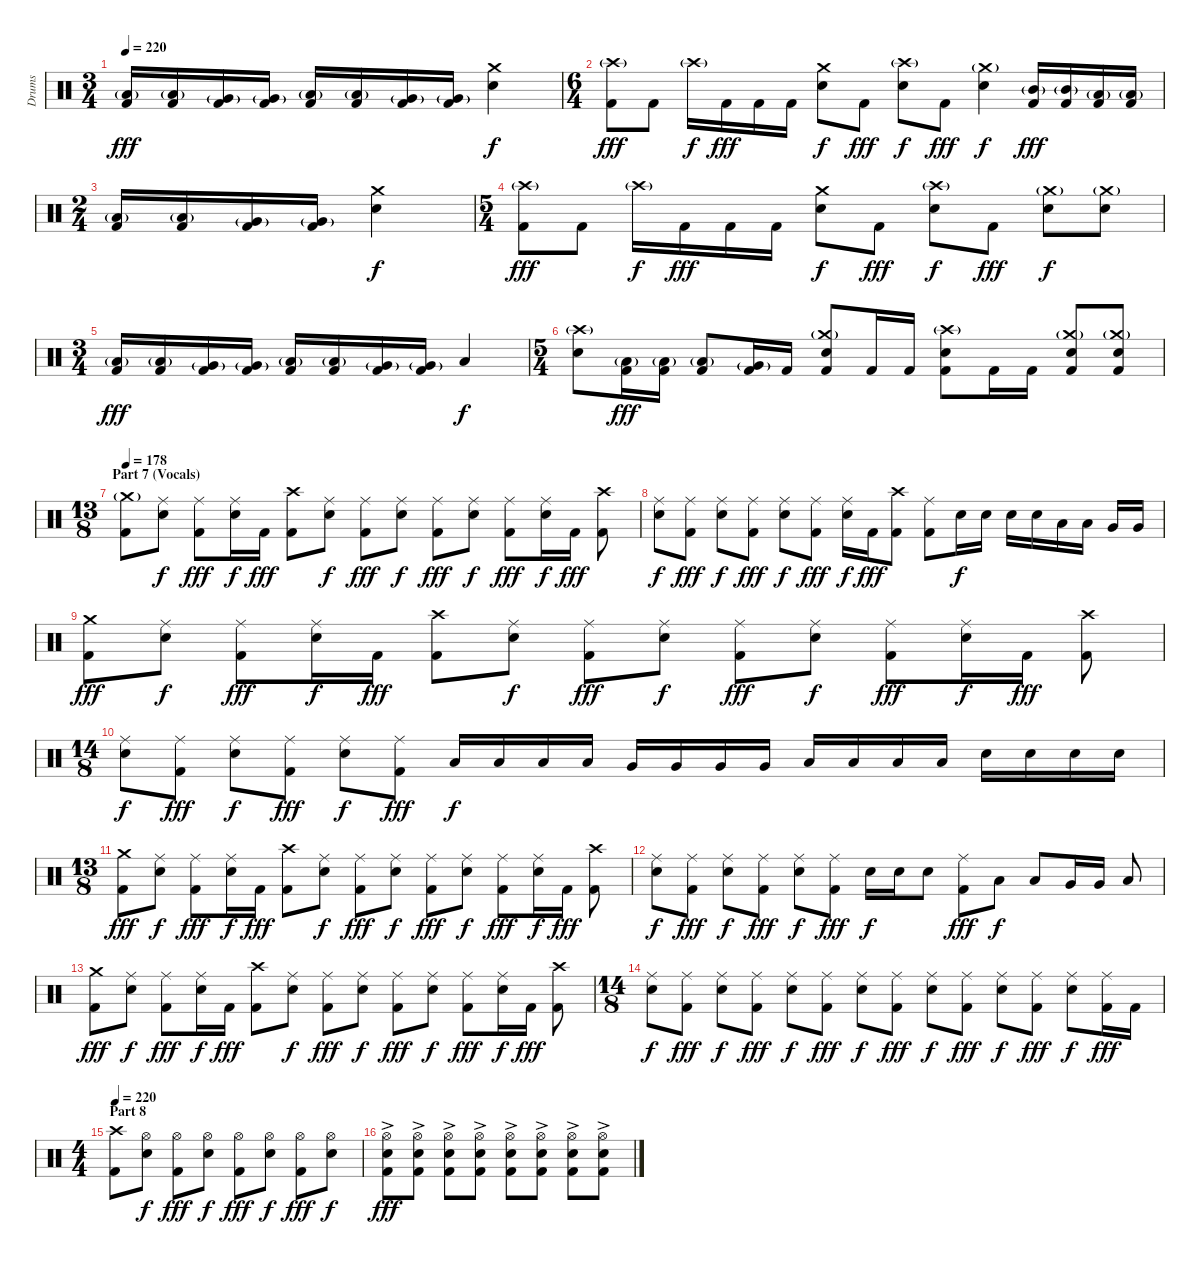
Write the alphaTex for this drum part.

\track ("Drums" "Drums") {instrument percussion}
\staff {score}
\articulation defaults
\ts (3 4)
\tempo 220
\clef neutral
\ks c
("Low Tom (hit)"{g} "Kick (hit) 2").16{dy fff} ("Low Tom (hit)"{g} "Kick (hit) 2").16 ("Very Low Tom (hit)"{g} "Kick (hit) 2").16 ("Very Low Tom (hit)"{g} "Kick (hit) 2").16 ("Low Tom (hit)"{g} "Kick (hit) 2").16 ("Low Tom (hit)"{g} "Kick (hit) 2").16 ("Very Low Tom (hit)"{g} "Kick (hit) 2").16 ("Very Low Tom (hit)"{g} "Kick (hit) 2").16 ("Crash medium (hit)" "Electric Snare (hit)").4{dy f} |
\ts (6 4)
("Crash high (hit)"{g} "Kick (hit) 2").8{dy fff} "Kick (hit) 2".8 "Crash high (hit)"{g}.16{dy f} "Kick (hit) 2".16{dy fff} "Kick (hit) 2".16 "Kick (hit) 2".16 ("Crash medium (hit)" "Electric Snare (hit)").8{dy f} "Kick (hit) 2".8{dy fff} ("Crash high (hit)"{g} "Electric Snare (hit)").8{dy f} "Kick (hit) 2".8{dy fff} ("Crash medium (hit)"{g} "Electric Snare (hit)").4{dy f} ("Mid Tom (hit)"{g} "Kick (hit) 2").16{dy fff} ("Mid Tom (hit)"{g} "Kick (hit) 2").16 ("Low Tom (hit)"{g} "Kick (hit) 2").16 ("Low Tom (hit)"{g} "Kick (hit) 2").16 |
\ts (2 4)
("Low Tom (hit)"{g} "Kick (hit) 2").16 ("Low Tom (hit)"{g} "Kick (hit) 2").16 ("Very Low Tom (hit)"{g} "Kick (hit) 2").16 ("Very Low Tom (hit)"{g} "Kick (hit) 2").16 ("Crash medium (hit)" "Electric Snare (hit)").4{dy f} |
\ts (5 4)
("Crash high (hit)"{g} "Kick (hit) 2").8{dy fff} "Kick (hit) 2".8 "Crash high (hit)"{g}.16{dy f} "Kick (hit) 2".16{dy fff} "Kick (hit) 2".16 "Kick (hit) 2".16 ("Crash medium (hit)" "Electric Snare (hit)").8{dy f} "Kick (hit) 2".8{dy fff} ("Crash high (hit)"{g} "Electric Snare (hit)").8{dy f} "Kick (hit) 2".8{dy fff} ("Crash medium (hit)"{g} "Electric Snare (hit)").8{dy f} ("Crash medium (hit)"{g} "Electric Snare (hit)").8 |
\ts (3 4)
("Low Tom (hit)"{g} "Kick (hit) 2").16{dy fff} ("Low Tom (hit)"{g} "Kick (hit) 2").16 ("Very Low Tom (hit)"{g} "Kick (hit) 2").16 ("Very Low Tom (hit)"{g} "Kick (hit) 2").16 ("Low Tom (hit)"{g} "Kick (hit) 2").16 ("Low Tom (hit)"{g} "Kick (hit) 2").16 ("Very Low Tom (hit)"{g} "Kick (hit) 2").16 ("Very Low Tom (hit)"{g} "Kick (hit) 2").16 "Low Floor Tom (hit)".4{dy f} |
\ts (5 4)
("Crash high (hit)"{g} "Electric Snare (hit)").8 ("Low Tom (hit)"{g} "Kick (hit) 2").16{dy fff} ("Low Tom (hit)"{g} "Kick (hit) 2").16 ("Low Tom (hit)"{g} "Kick (hit) 2").8 ("Very Low Tom (hit)"{g} "Kick (hit) 2").16 "Kick (hit) 2".16 ("Crash medium (hit)"{g} "Electric Snare (hit)" "Kick (hit) 2").8 "Kick (hit) 2".16 "Kick (hit) 2".16 ("Crash high (hit)"{g} "Electric Snare (hit)" "Kick (hit) 2").8 "Kick (hit) 2".16 "Kick (hit) 2".16 ("Crash medium (hit)"{g} "Electric Snare (hit)" "Kick (hit) 2").8 ("Crash medium (hit)"{g} "Electric Snare (hit)" "Kick (hit) 2").8 |
\ts (13 8)
\section ("" "Part 7 (Vocals)")
\tempo 178
("Crash medium (hit)"{g} "Kick (hit) 2").8 ("Ride (middle)" "Electric Snare (hit)").8{dy f} ("Ride (middle)" "Kick (hit) 2").8{dy fff} ("Ride (middle)" "Electric Snare (hit)").16{dy f} "Kick (hit) 2".16{dy fff} ("Crash high (hit)" "Kick (hit) 2").8 ("Ride (middle)" "Electric Snare (hit)").8{dy f} ("Ride (middle)" "Kick (hit) 2").8{dy fff} ("Ride (middle)" "Electric Snare (hit)").8{dy f} ("Ride (middle)" "Kick (hit) 2").8{dy fff} ("Ride (middle)" "Electric Snare (hit)").8{dy f} ("Ride (middle)" "Kick (hit) 2").8{dy fff} ("Ride (middle)" "Electric Snare (hit)").16{dy f} "Kick (hit) 2".16{dy fff} ("Crash high (hit)" "Kick (hit) 2").8 |
("Ride (middle)" "Electric Snare (hit)").8{dy f} ("Ride (middle)" "Kick (hit) 2").8{dy fff} ("Ride (middle)" "Electric Snare (hit)").8{dy f} ("Ride (middle)" "Kick (hit) 2").8{dy fff} ("Ride (middle)" "Electric Snare (hit)").8{dy f} ("Ride (middle)" "Kick (hit) 2").8{dy fff} ("Ride (middle)" "Electric Snare (hit)").16{dy f} "Kick (hit) 2".16{dy fff} ("Crash high (hit)" "Kick (hit) 2").8 ("Ride (middle)" "Kick (hit) 2").8 "Electric Snare (hit)".16{dy f} "Electric Snare (hit)".16 "Electric Snare (hit)".16 "Electric Snare (hit)".16 "Low Tom (hit)".16 "Low Tom (hit)".16 "Very Low Tom (hit)".16 "Very Low Tom (hit)".16 |
("Crash medium (hit)" "Kick (hit) 2").8{dy fff} ("Ride (middle)" "Electric Snare (hit)").8{dy f} ("Ride (middle)" "Kick (hit) 2").8{dy fff} ("Ride (middle)" "Electric Snare (hit)").16{dy f} "Kick (hit) 2".16{dy fff} ("Crash high (hit)" "Kick (hit) 2").8 ("Ride (middle)" "Electric Snare (hit)").8{dy f} ("Ride (middle)" "Kick (hit) 2").8{dy fff} ("Ride (middle)" "Electric Snare (hit)").8{dy f} ("Ride (middle)" "Kick (hit) 2").8{dy fff} ("Ride (middle)" "Electric Snare (hit)").8{dy f} ("Ride (middle)" "Kick (hit) 2").8{dy fff} ("Ride (middle)" "Electric Snare (hit)").16{dy f} "Kick (hit) 2".16{dy fff} ("Crash high (hit)" "Kick (hit) 2").8 |
\ts (14 8)
("Ride (middle)" "Electric Snare (hit)").8{dy f} ("Ride (middle)" "Kick (hit) 2").8{dy fff} ("Ride (middle)" "Electric Snare (hit)").8{dy f} ("Ride (middle)" "Kick (hit) 2").8{dy fff} ("Ride (middle)" "Electric Snare (hit)").8{dy f} ("Ride (middle)" "Kick (hit) 2").8{dy fff} "Low Tom (hit)".16{dy f} "Low Tom (hit)".16 "Low Tom (hit)".16 "Low Tom (hit)".16 "Very Low Tom (hit)".16 "Very Low Tom (hit)".16 "Very Low Tom (hit)".16 "Very Low Tom (hit)".16 "Low Floor Tom (hit)".16 "Low Floor Tom (hit)".16 "Low Floor Tom (hit)".16 "Low Floor Tom (hit)".16 "Electric Snare (hit)".16 "Electric Snare (hit)".16 "Electric Snare (hit)".16 "Electric Snare (hit)".16 |
\ts (13 8)
("Crash medium (hit)" "Kick (hit) 2").8{dy fff} ("Ride (middle)" "Electric Snare (hit)").8{dy f} ("Ride (middle)" "Kick (hit) 2").8{dy fff} ("Ride (middle)" "Electric Snare (hit)").16{dy f} "Kick (hit) 2".16{dy fff} ("Crash high (hit)" "Kick (hit) 2").8 ("Ride (middle)" "Electric Snare (hit)").8{dy f} ("Ride (middle)" "Kick (hit) 2").8{dy fff} ("Ride (middle)" "Electric Snare (hit)").8{dy f} ("Ride (middle)" "Kick (hit) 2").8{dy fff} ("Ride (middle)" "Electric Snare (hit)").8{dy f} ("Ride (middle)" "Kick (hit) 2").8{dy fff} ("Ride (middle)" "Electric Snare (hit)").16{dy f} "Kick (hit) 2".16{dy fff} ("Crash high (hit)" "Kick (hit) 2").8 |
("Ride (middle)" "Electric Snare (hit)").8{dy f} ("Ride (middle)" "Kick (hit) 2").8{dy fff} ("Ride (middle)" "Electric Snare (hit)").8{dy f} ("Ride (middle)" "Kick (hit) 2").8{dy fff} ("Ride (middle)" "Electric Snare (hit)").8{dy f} ("Ride (middle)" "Kick (hit) 2").8{dy fff} "Electric Snare (hit)".16{dy f} "Electric Snare (hit)".16 "Electric Snare (hit)".8 ("Ride (middle)" "Kick (hit) 2").8{dy fff} "Low Tom (hit)".8{dy f} "Low Tom (hit)".8 "Very Low Tom (hit)".16 "Very Low Tom (hit)".16 "Low Floor Tom (hit)".8 |
("Crash medium (hit)" "Kick (hit) 2").8{dy fff} ("Ride (middle)" "Electric Snare (hit)").8{dy f} ("Ride (middle)" "Kick (hit) 2").8{dy fff} ("Ride (middle)" "Electric Snare (hit)").16{dy f} "Kick (hit) 2".16{dy fff} ("Crash high (hit)" "Kick (hit) 2").8 ("Ride (middle)" "Electric Snare (hit)").8{dy f} ("Ride (middle)" "Kick (hit) 2").8{dy fff} ("Ride (middle)" "Electric Snare (hit)").8{dy f} ("Ride (middle)" "Kick (hit) 2").8{dy fff} ("Ride (middle)" "Electric Snare (hit)").8{dy f} ("Ride (middle)" "Kick (hit) 2").8{dy fff} ("Ride (middle)" "Electric Snare (hit)").16{dy f} "Kick (hit) 2".16{dy fff} ("Crash high (hit)" "Kick (hit) 2").8 |
\ts (14 8)
("Ride (middle)" "Electric Snare (hit)").8{dy f} ("Ride (middle)" "Kick (hit) 2").8{dy fff} ("Ride (middle)" "Electric Snare (hit)").8{dy f} ("Ride (middle)" "Kick (hit) 2").8{dy fff} ("Ride (middle)" "Electric Snare (hit)").8{dy f} ("Ride (middle)" "Kick (hit) 2").8{dy fff} ("Ride (middle)" "Electric Snare (hit)").8{dy f} ("Ride (middle)" "Kick (hit) 2").8{dy fff} ("Ride (middle)" "Electric Snare (hit)").8{dy f} ("Ride (middle)" "Kick (hit) 2").8{dy fff} ("Ride (middle)" "Electric Snare (hit)").8{dy f} ("Ride (middle)" "Kick (hit) 2").8{dy fff} ("Ride (middle)" "Electric Snare (hit)").8{dy f} ("Ride (middle)" "Kick (hit) 2").16{dy fff} "Kick (hit) 2".16 |
\ts (4 4)
\section ("" "Part 8")
\tempo 220
("Crash high (hit)" "Kick (hit) 2").8 ("Hi-Hat (open)" "Electric Snare (hit)").8{dy f} ("Hi-Hat (open)" "Kick (hit) 2").8{dy fff} ("Hi-Hat (open)" "Electric Snare (hit)").8{dy f} ("Hi-Hat (open)" "Kick (hit) 2").8{dy fff} ("Hi-Hat (open)" "Electric Snare (hit)").8{dy f} ("Hi-Hat (open)" "Kick (hit) 2").8{dy fff} ("Hi-Hat (open)" "Electric Snare (hit)").8{dy f} |
("Hi-Hat (open)"{ac} "Electric Snare (hit)"{ac} "Kick (hit) 2").8{dy fff} ("Hi-Hat (open)"{ac} "Electric Snare (hit)"{ac} "Kick (hit) 2").8 ("Hi-Hat (open)"{ac} "Electric Snare (hit)"{ac} "Kick (hit) 2").8 ("Hi-Hat (open)"{ac} "Electric Snare (hit)"{ac} "Kick (hit) 2").8 ("Hi-Hat (open)"{ac} "Electric Snare (hit)"{ac} "Kick (hit) 2").8 ("Hi-Hat (open)"{ac} "Electric Snare (hit)"{ac} "Kick (hit) 2").8 ("Hi-Hat (open)"{ac} "Electric Snare (hit)"{ac} "Kick (hit) 2").8 ("Hi-Hat (open)"{ac} "Electric Snare (hit)"{ac} "Kick (hit) 2").8
